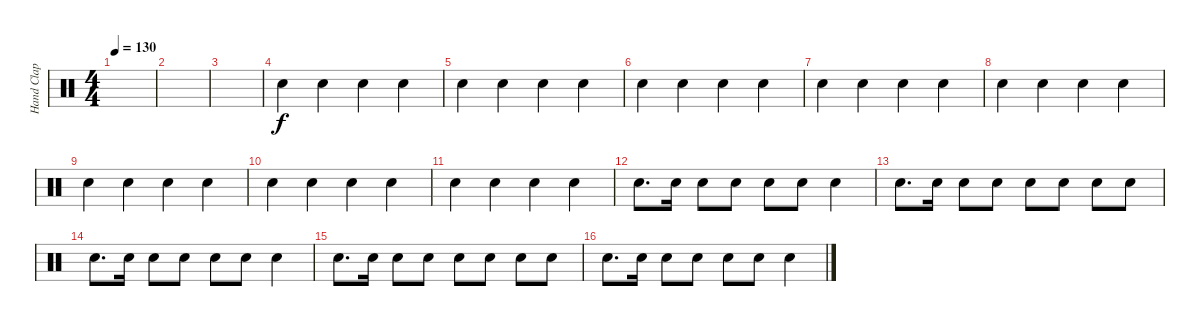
\track ("Hand Clap" "Hand Clap") {instrument percussion}
\staff {score}
\articulation defaults
\ts (4 4)
\tempo 130
\clef neutral
\ks c
|
|
|
"Hand Clap (hit)".4 "Hand Clap (hit)".4 "Hand Clap (hit)".4 "Hand Clap (hit)".4 |
"Hand Clap (hit)".4 "Hand Clap (hit)".4 "Hand Clap (hit)".4 "Hand Clap (hit)".4 |
"Hand Clap (hit)".4 "Hand Clap (hit)".4 "Hand Clap (hit)".4 "Hand Clap (hit)".4 |
"Hand Clap (hit)".4 "Hand Clap (hit)".4 "Hand Clap (hit)".4 "Hand Clap (hit)".4 |
"Hand Clap (hit)".4 "Hand Clap (hit)".4 "Hand Clap (hit)".4 "Hand Clap (hit)".4 |
"Hand Clap (hit)".4 "Hand Clap (hit)".4 "Hand Clap (hit)".4 "Hand Clap (hit)".4 |
"Hand Clap (hit)".4 "Hand Clap (hit)".4 "Hand Clap (hit)".4 "Hand Clap (hit)".4 |
"Hand Clap (hit)".4 "Hand Clap (hit)".4 "Hand Clap (hit)".4 "Hand Clap (hit)".4 |
"Hand Clap (hit)".8{d} "Hand Clap (hit)".16 "Hand Clap (hit)".8 "Hand Clap (hit)".8 "Hand Clap (hit)".8 "Hand Clap (hit)".8 "Hand Clap (hit)".4 |
"Hand Clap (hit)".8{d} "Hand Clap (hit)".16 "Hand Clap (hit)".8 "Hand Clap (hit)".8 "Hand Clap (hit)".8 "Hand Clap (hit)".8 "Hand Clap (hit)".8 "Hand Clap (hit)".8 |
"Hand Clap (hit)".8{d} "Hand Clap (hit)".16 "Hand Clap (hit)".8 "Hand Clap (hit)".8 "Hand Clap (hit)".8 "Hand Clap (hit)".8 "Hand Clap (hit)".4 |
"Hand Clap (hit)".8{d} "Hand Clap (hit)".16 "Hand Clap (hit)".8 "Hand Clap (hit)".8 "Hand Clap (hit)".8 "Hand Clap (hit)".8 "Hand Clap (hit)".8 "Hand Clap (hit)".8 |
"Hand Clap (hit)".8{d} "Hand Clap (hit)".16 "Hand Clap (hit)".8 "Hand Clap (hit)".8 "Hand Clap (hit)".8 "Hand Clap (hit)".8 "Hand Clap (hit)".4
